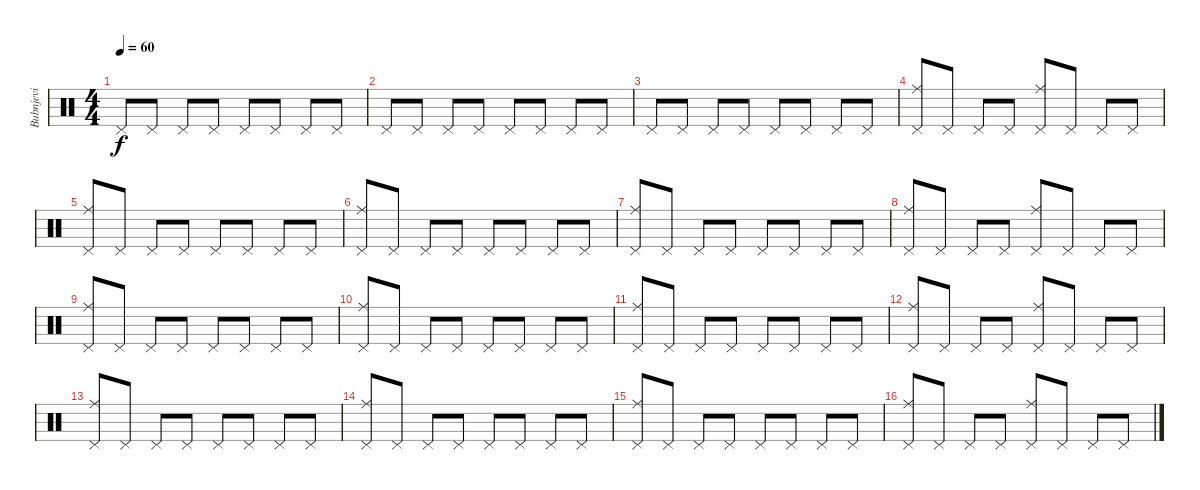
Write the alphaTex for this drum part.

\track ("Bubnjevi" "Bubnjevi") {instrument percussion}
\staff {score}
\articulation defaults
\ts (4 4)
\tempo 60
\clef neutral
\ks c "Pedal Hi-Hat (hit)".8{dy f} "Pedal Hi-Hat (hit)".8 "Pedal Hi-Hat (hit)".8 "Pedal Hi-Hat (hit)".8 "Pedal Hi-Hat (hit)".8 "Pedal Hi-Hat (hit)".8 "Pedal Hi-Hat (hit)".8 "Pedal Hi-Hat (hit)".8
|
"Pedal Hi-Hat (hit)".8 "Pedal Hi-Hat (hit)".8 "Pedal Hi-Hat (hit)".8 "Pedal Hi-Hat (hit)".8 "Pedal Hi-Hat (hit)".8 "Pedal Hi-Hat (hit)".8 "Pedal Hi-Hat (hit)".8 "Pedal Hi-Hat (hit)".8 |
"Pedal Hi-Hat (hit)".8 "Pedal Hi-Hat (hit)".8 "Pedal Hi-Hat (hit)".8 "Pedal Hi-Hat (hit)".8 "Pedal Hi-Hat (hit)".8 "Pedal Hi-Hat (hit)".8 "Pedal Hi-Hat (hit)".8 "Pedal Hi-Hat (hit)".8 |
("Ride (middle)" "Pedal Hi-Hat (hit)").8 "Pedal Hi-Hat (hit)".8 "Pedal Hi-Hat (hit)".8 "Pedal Hi-Hat (hit)".8 ("Ride (middle)" "Pedal Hi-Hat (hit)").8 "Pedal Hi-Hat (hit)".8 "Pedal Hi-Hat (hit)".8 "Pedal Hi-Hat (hit)".8 |
("Ride (middle)" "Pedal Hi-Hat (hit)").8 "Pedal Hi-Hat (hit)".8 "Pedal Hi-Hat (hit)".8 "Pedal Hi-Hat (hit)".8 "Pedal Hi-Hat (hit)".8 "Pedal Hi-Hat (hit)".8 "Pedal Hi-Hat (hit)".8 "Pedal Hi-Hat (hit)".8 |
("Ride (middle)" "Pedal Hi-Hat (hit)").8 "Pedal Hi-Hat (hit)".8 "Pedal Hi-Hat (hit)".8 "Pedal Hi-Hat (hit)".8 "Pedal Hi-Hat (hit)".8 "Pedal Hi-Hat (hit)".8 "Pedal Hi-Hat (hit)".8 "Pedal Hi-Hat (hit)".8 |
("Ride (middle)" "Pedal Hi-Hat (hit)").8 "Pedal Hi-Hat (hit)".8 "Pedal Hi-Hat (hit)".8 "Pedal Hi-Hat (hit)".8 "Pedal Hi-Hat (hit)".8 "Pedal Hi-Hat (hit)".8 "Pedal Hi-Hat (hit)".8 "Pedal Hi-Hat (hit)".8 |
("Ride (middle)" "Pedal Hi-Hat (hit)").8 "Pedal Hi-Hat (hit)".8 "Pedal Hi-Hat (hit)".8 "Pedal Hi-Hat (hit)".8 ("Ride (middle)" "Pedal Hi-Hat (hit)").8 "Pedal Hi-Hat (hit)".8 "Pedal Hi-Hat (hit)".8 "Pedal Hi-Hat (hit)".8 |
("Ride (middle)" "Pedal Hi-Hat (hit)").8 "Pedal Hi-Hat (hit)".8 "Pedal Hi-Hat (hit)".8 "Pedal Hi-Hat (hit)".8 "Pedal Hi-Hat (hit)".8 "Pedal Hi-Hat (hit)".8 "Pedal Hi-Hat (hit)".8 "Pedal Hi-Hat (hit)".8 |
("Ride (middle)" "Pedal Hi-Hat (hit)").8 "Pedal Hi-Hat (hit)".8 "Pedal Hi-Hat (hit)".8 "Pedal Hi-Hat (hit)".8 "Pedal Hi-Hat (hit)".8 "Pedal Hi-Hat (hit)".8 "Pedal Hi-Hat (hit)".8 "Pedal Hi-Hat (hit)".8 |
("Ride (middle)" "Pedal Hi-Hat (hit)").8 "Pedal Hi-Hat (hit)".8 "Pedal Hi-Hat (hit)".8 "Pedal Hi-Hat (hit)".8 "Pedal Hi-Hat (hit)".8 "Pedal Hi-Hat (hit)".8 "Pedal Hi-Hat (hit)".8 "Pedal Hi-Hat (hit)".8 |
("Ride (middle)" "Pedal Hi-Hat (hit)").8 "Pedal Hi-Hat (hit)".8 "Pedal Hi-Hat (hit)".8 "Pedal Hi-Hat (hit)".8 ("Ride (middle)" "Pedal Hi-Hat (hit)").8 "Pedal Hi-Hat (hit)".8 "Pedal Hi-Hat (hit)".8 "Pedal Hi-Hat (hit)".8 |
("Ride (middle)" "Pedal Hi-Hat (hit)").8 "Pedal Hi-Hat (hit)".8 "Pedal Hi-Hat (hit)".8 "Pedal Hi-Hat (hit)".8 "Pedal Hi-Hat (hit)".8 "Pedal Hi-Hat (hit)".8 "Pedal Hi-Hat (hit)".8 "Pedal Hi-Hat (hit)".8 |
("Ride (middle)" "Pedal Hi-Hat (hit)").8 "Pedal Hi-Hat (hit)".8 "Pedal Hi-Hat (hit)".8 "Pedal Hi-Hat (hit)".8 "Pedal Hi-Hat (hit)".8 "Pedal Hi-Hat (hit)".8 "Pedal Hi-Hat (hit)".8 "Pedal Hi-Hat (hit)".8 |
("Ride (middle)" "Pedal Hi-Hat (hit)").8 "Pedal Hi-Hat (hit)".8 "Pedal Hi-Hat (hit)".8 "Pedal Hi-Hat (hit)".8 "Pedal Hi-Hat (hit)".8 "Pedal Hi-Hat (hit)".8 "Pedal Hi-Hat (hit)".8 "Pedal Hi-Hat (hit)".8 |
("Ride (middle)" "Pedal Hi-Hat (hit)").8 "Pedal Hi-Hat (hit)".8 "Pedal Hi-Hat (hit)".8 "Pedal Hi-Hat (hit)".8 ("Ride (middle)" "Pedal Hi-Hat (hit)").8 "Pedal Hi-Hat (hit)".8 "Pedal Hi-Hat (hit)".8 "Pedal Hi-Hat (hit)".8
